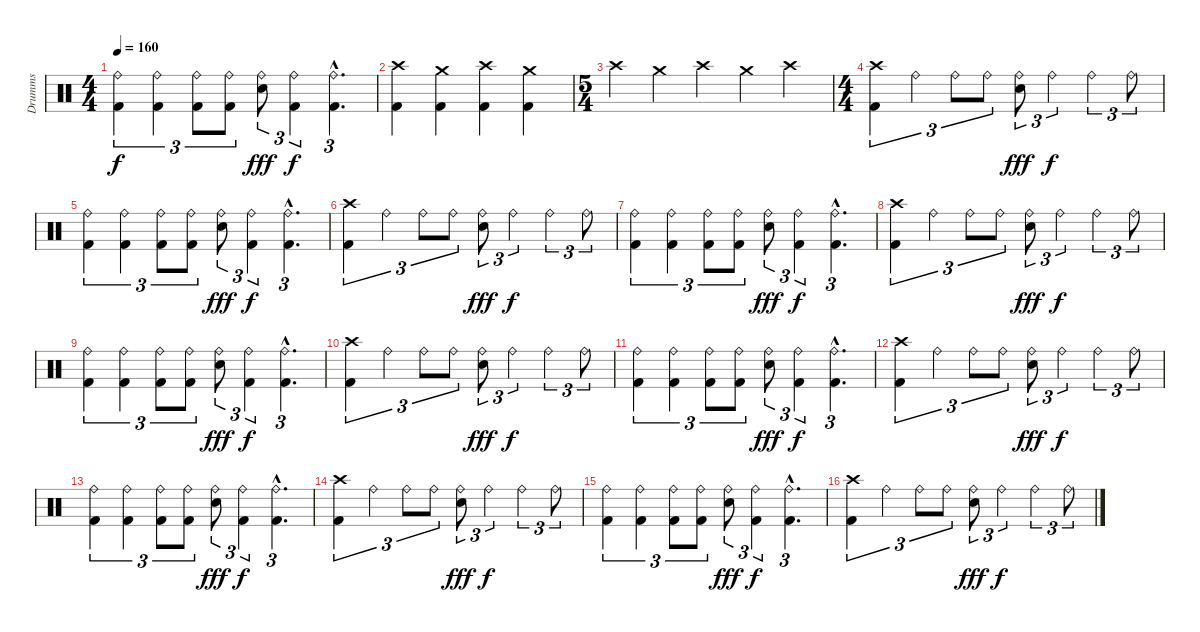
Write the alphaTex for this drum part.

\track ("Drumms" "Drumms") {instrument percussion}
\staff {score}
\articulation defaults
\ts (4 4)
\tempo 160
\clef neutral
\ks c
("Ride (bell)" "Kick (hit) 2").4{tu (3 2) dy f} ("Ride (bell)" "Kick (hit) 2").4{tu (3 2)} ("Ride (bell)" "Kick (hit) 2").8{tu (3 2)} ("Ride (bell)" "Kick (hit) 2").8{tu (3 2)} ("Ride (bell)" "Snare (hit) 2").8{tu (3 2) dy fff} ("Ride (bell)" "Kick (hit) 2").4{tu (3 2) dy f} ("Ride (bell)" "Kick (hit) 2"{hac}).4{d tu (3 2)} |
("Crash high (hit)" "Kick (hit) 2").4 ("Crash medium (hit)" "Kick (hit) 2").4 ("Crash high (hit)" "Kick (hit) 2").4 ("Crash medium (hit)" "Kick (hit) 2").4 |
\ts (5 4)
"Crash high (hit)".4 "Crash medium (hit)".4 "Crash high (hit)".4 "Crash medium (hit)".4 "Crash high (hit)".4 |
\ts (4 4)
\section ("" "")
("Crash high (hit)" "Kick (hit) 2").4{tu (3 2)} "Ride (bell)".4{tu (3 2)} "Ride (bell)".8{tu (3 2)} "Ride (bell)".8{tu (3 2)} ("Ride (bell)" "Snare (hit) 2").8{tu (3 2) dy fff} "Ride (bell)".4{tu (3 2) dy f} "Ride (bell)".4{tu (3 2)} "Ride (bell)".8{tu (3 2)} |
("Ride (bell)" "Kick (hit) 2").4{tu (3 2)} ("Ride (bell)" "Kick (hit) 2").4{tu (3 2)} ("Ride (bell)" "Kick (hit) 2").8{tu (3 2)} ("Ride (bell)" "Kick (hit) 2").8{tu (3 2)} ("Ride (bell)" "Snare (hit) 2").8{tu (3 2) dy fff} ("Ride (bell)" "Kick (hit) 2").4{tu (3 2) dy f} ("Ride (bell)" "Kick (hit) 2"{hac}).4{d tu (3 2)} |
("Crash high (hit)" "Kick (hit) 2").4{tu (3 2)} "Ride (bell)".4{tu (3 2)} "Ride (bell)".8{tu (3 2)} "Ride (bell)".8{tu (3 2)} ("Ride (bell)" "Snare (hit) 2").8{tu (3 2) dy fff} "Ride (bell)".4{tu (3 2) dy f} "Ride (bell)".4{tu (3 2)} "Ride (bell)".8{tu (3 2)} |
("Ride (bell)" "Kick (hit) 2").4{tu (3 2)} ("Ride (bell)" "Kick (hit) 2").4{tu (3 2)} ("Ride (bell)" "Kick (hit) 2").8{tu (3 2)} ("Ride (bell)" "Kick (hit) 2").8{tu (3 2)} ("Ride (bell)" "Snare (hit) 2").8{tu (3 2) dy fff} ("Ride (bell)" "Kick (hit) 2").4{tu (3 2) dy f} ("Ride (bell)" "Kick (hit) 2"{hac}).4{d tu (3 2)} |
("Crash high (hit)" "Kick (hit) 2").4{tu (3 2)} "Ride (bell)".4{tu (3 2)} "Ride (bell)".8{tu (3 2)} "Ride (bell)".8{tu (3 2)} ("Ride (bell)" "Snare (hit) 2").8{tu (3 2) dy fff} "Ride (bell)".4{tu (3 2) dy f} "Ride (bell)".4{tu (3 2)} "Ride (bell)".8{tu (3 2)} |
("Ride (bell)" "Kick (hit) 2").4{tu (3 2)} ("Ride (bell)" "Kick (hit) 2").4{tu (3 2)} ("Ride (bell)" "Kick (hit) 2").8{tu (3 2)} ("Ride (bell)" "Kick (hit) 2").8{tu (3 2)} ("Ride (bell)" "Snare (hit) 2").8{tu (3 2) dy fff} ("Ride (bell)" "Kick (hit) 2").4{tu (3 2) dy f} ("Ride (bell)" "Kick (hit) 2"{hac}).4{d tu (3 2)} |
("Crash high (hit)" "Kick (hit) 2").4{tu (3 2)} "Ride (bell)".4{tu (3 2)} "Ride (bell)".8{tu (3 2)} "Ride (bell)".8{tu (3 2)} ("Ride (bell)" "Snare (hit) 2").8{tu (3 2) dy fff} "Ride (bell)".4{tu (3 2) dy f} "Ride (bell)".4{tu (3 2)} "Ride (bell)".8{tu (3 2)} |
("Ride (bell)" "Kick (hit) 2").4{tu (3 2)} ("Ride (bell)" "Kick (hit) 2").4{tu (3 2)} ("Ride (bell)" "Kick (hit) 2").8{tu (3 2)} ("Ride (bell)" "Kick (hit) 2").8{tu (3 2)} ("Ride (bell)" "Snare (hit) 2").8{tu (3 2) dy fff} ("Ride (bell)" "Kick (hit) 2").4{tu (3 2) dy f} ("Ride (bell)" "Kick (hit) 2"{hac}).4{d tu (3 2)} |
("Crash high (hit)" "Kick (hit) 2").4{tu (3 2)} "Ride (bell)".4{tu (3 2)} "Ride (bell)".8{tu (3 2)} "Ride (bell)".8{tu (3 2)} ("Ride (bell)" "Snare (hit) 2").8{tu (3 2) dy fff} "Ride (bell)".4{tu (3 2) dy f} "Ride (bell)".4{tu (3 2)} "Ride (bell)".8{tu (3 2)} |
("Ride (bell)" "Kick (hit) 2").4{tu (3 2)} ("Ride (bell)" "Kick (hit) 2").4{tu (3 2)} ("Ride (bell)" "Kick (hit) 2").8{tu (3 2)} ("Ride (bell)" "Kick (hit) 2").8{tu (3 2)} ("Ride (bell)" "Snare (hit) 2").8{tu (3 2) dy fff} ("Ride (bell)" "Kick (hit) 2").4{tu (3 2) dy f} ("Ride (bell)" "Kick (hit) 2"{hac}).4{d tu (3 2)} |
("Crash high (hit)" "Kick (hit) 2").4{tu (3 2)} "Ride (bell)".4{tu (3 2)} "Ride (bell)".8{tu (3 2)} "Ride (bell)".8{tu (3 2)} ("Ride (bell)" "Snare (hit) 2").8{tu (3 2) dy fff} "Ride (bell)".4{tu (3 2) dy f} "Ride (bell)".4{tu (3 2)} "Ride (bell)".8{tu (3 2)} |
("Ride (bell)" "Kick (hit) 2").4{tu (3 2)} ("Ride (bell)" "Kick (hit) 2").4{tu (3 2)} ("Ride (bell)" "Kick (hit) 2").8{tu (3 2)} ("Ride (bell)" "Kick (hit) 2").8{tu (3 2)} ("Ride (bell)" "Snare (hit) 2").8{tu (3 2) dy fff} ("Ride (bell)" "Kick (hit) 2").4{tu (3 2) dy f} ("Ride (bell)" "Kick (hit) 2"{hac}).4{d tu (3 2)} |
("Crash high (hit)" "Kick (hit) 2").4{tu (3 2)} "Ride (bell)".4{tu (3 2)} "Ride (bell)".8{tu (3 2)} "Ride (bell)".8{tu (3 2)} ("Ride (bell)" "Snare (hit) 2").8{tu (3 2) dy fff} "Ride (bell)".4{tu (3 2) dy f} "Ride (bell)".4{tu (3 2)} "Ride (bell)".8{tu (3 2)}
